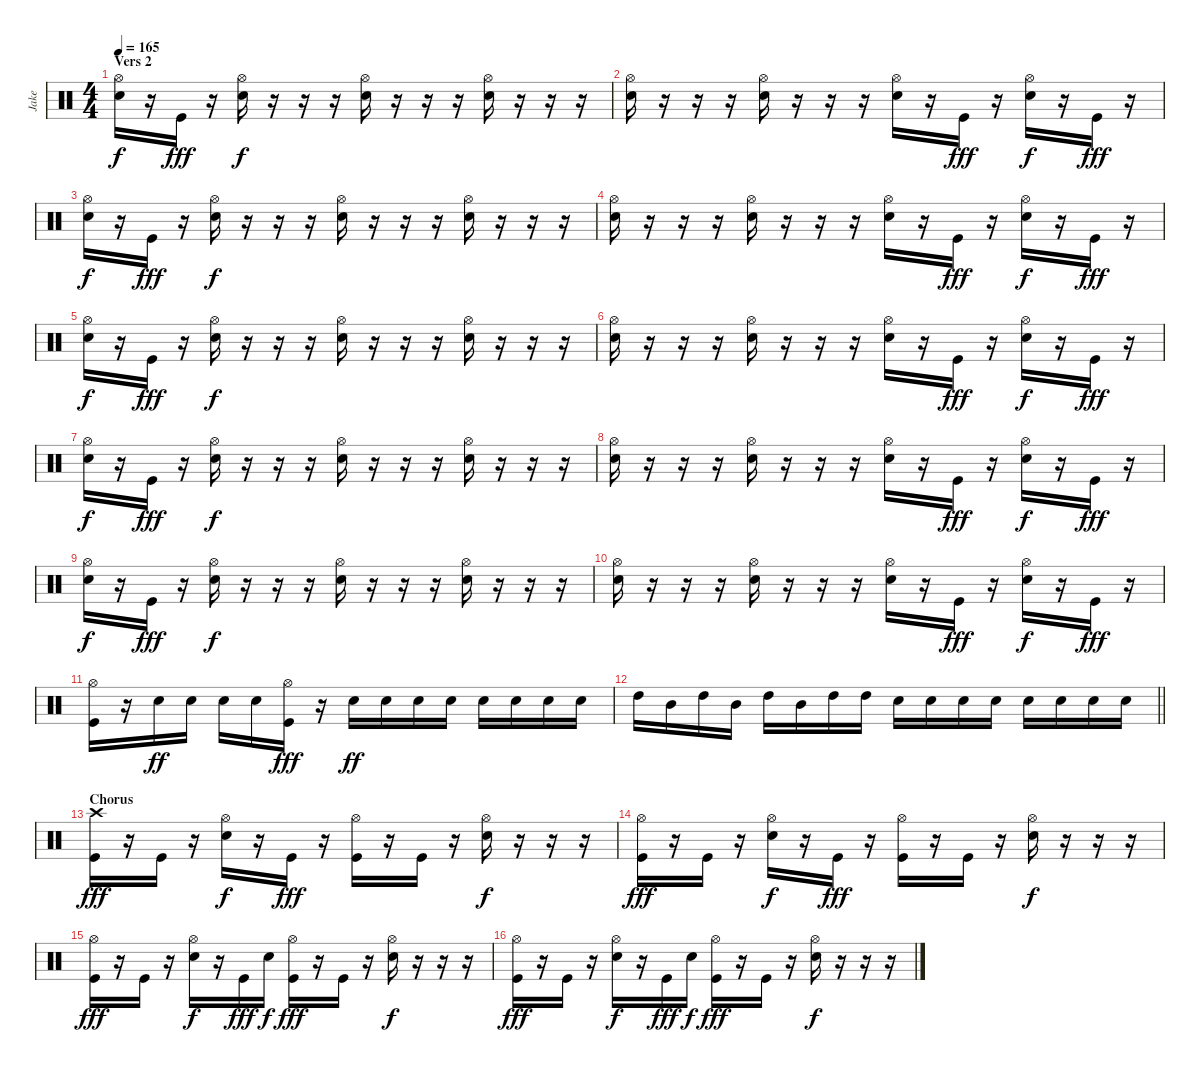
\track ("Jake" "Jake") {instrument percussion}
\staff {score}
\articulation defaults
\ts (4 4)
\section ("" "Vers 2")
\tempo 165
\clef neutral
\ks c
("Hi-Hat (open)" "Electric Snare (hit)").16{dy f} r.16 "Kick (hit)".16{dy fff} r.16 ("Hi-Hat (open)" "Electric Snare (hit)").16{dy f} r.16 r.16 r.16 ("Hi-Hat (open)" "Electric Snare (hit)").16 r.16 r.16 r.16 ("Hi-Hat (open)" "Electric Snare (hit)").16 r.16 r.16 r.16 |
("Hi-Hat (open)" "Electric Snare (hit)").16 r.16 r.16 r.16 ("Hi-Hat (open)" "Electric Snare (hit)").16 r.16 r.16 r.16 ("Hi-Hat (open)" "Electric Snare (hit)").16 r.16 "Kick (hit)".16{dy fff} r.16 ("Hi-Hat (open)" "Electric Snare (hit)").16{dy f} r.16 "Kick (hit)".16{dy fff} r.16 |
("Hi-Hat (open)" "Electric Snare (hit)").16{dy f} r.16 "Kick (hit)".16{dy fff} r.16 ("Hi-Hat (open)" "Electric Snare (hit)").16{dy f} r.16 r.16 r.16 ("Hi-Hat (open)" "Electric Snare (hit)").16 r.16 r.16 r.16 ("Hi-Hat (open)" "Electric Snare (hit)").16 r.16 r.16 r.16 |
("Hi-Hat (open)" "Electric Snare (hit)").16 r.16 r.16 r.16 ("Hi-Hat (open)" "Electric Snare (hit)").16 r.16 r.16 r.16 ("Hi-Hat (open)" "Electric Snare (hit)").16 r.16 "Kick (hit)".16{dy fff} r.16 ("Hi-Hat (open)" "Electric Snare (hit)").16{dy f} r.16 "Kick (hit)".16{dy fff} r.16 |
("Hi-Hat (open)" "Electric Snare (hit)").16{dy f} r.16 "Kick (hit)".16{dy fff} r.16 ("Hi-Hat (open)" "Electric Snare (hit)").16{dy f} r.16 r.16 r.16 ("Hi-Hat (open)" "Electric Snare (hit)").16 r.16 r.16 r.16 ("Hi-Hat (open)" "Electric Snare (hit)").16 r.16 r.16 r.16 |
("Hi-Hat (open)" "Electric Snare (hit)").16 r.16 r.16 r.16 ("Hi-Hat (open)" "Electric Snare (hit)").16 r.16 r.16 r.16 ("Hi-Hat (open)" "Electric Snare (hit)").16 r.16 "Kick (hit)".16{dy fff} r.16 ("Hi-Hat (open)" "Electric Snare (hit)").16{dy f} r.16 "Kick (hit)".16{dy fff} r.16 |
("Hi-Hat (open)" "Electric Snare (hit)").16{dy f} r.16 "Kick (hit)".16{dy fff} r.16 ("Hi-Hat (open)" "Electric Snare (hit)").16{dy f} r.16 r.16 r.16 ("Hi-Hat (open)" "Electric Snare (hit)").16 r.16 r.16 r.16 ("Hi-Hat (open)" "Electric Snare (hit)").16 r.16 r.16 r.16 |
("Hi-Hat (open)" "Electric Snare (hit)").16 r.16 r.16 r.16 ("Hi-Hat (open)" "Electric Snare (hit)").16 r.16 r.16 r.16 ("Hi-Hat (open)" "Electric Snare (hit)").16 r.16 "Kick (hit)".16{dy fff} r.16 ("Hi-Hat (open)" "Electric Snare (hit)").16{dy f} r.16 "Kick (hit)".16{dy fff} r.16 |
("Hi-Hat (open)" "Electric Snare (hit)").16{dy f} r.16 "Kick (hit)".16{dy fff} r.16 ("Hi-Hat (open)" "Electric Snare (hit)").16{dy f} r.16 r.16 r.16 ("Hi-Hat (open)" "Electric Snare (hit)").16 r.16 r.16 r.16 ("Hi-Hat (open)" "Electric Snare (hit)").16 r.16 r.16 r.16 |
("Hi-Hat (open)" "Electric Snare (hit)").16 r.16 r.16 r.16 ("Hi-Hat (open)" "Electric Snare (hit)").16 r.16 r.16 r.16 ("Hi-Hat (open)" "Electric Snare (hit)").16 r.16 "Kick (hit)".16{dy fff} r.16 ("Hi-Hat (open)" "Electric Snare (hit)").16{dy f} r.16 "Kick (hit)".16{dy fff} r.16 |
("Hi-Hat (open)" "Kick (hit)").16 r.16 "Electric Snare (hit)".16{dy ff} "Electric Snare (hit)".16 "Electric Snare (hit)".16 "Electric Snare (hit)".16 ("Hi-Hat (open)" "Kick (hit)").16{dy fff} r.16 "Electric Snare (hit)".16{dy ff} "Electric Snare (hit)".16 "Electric Snare (hit)".16 "Electric Snare (hit)".16 "Electric Snare (hit)".16 "Electric Snare (hit)".16 "Electric Snare (hit)".16 "Electric Snare (hit)".16 |
\barLineRight lightlight "High Tom (hit)".16 "Mid Tom (hit)".16 "High Tom (hit)".16 "Mid Tom (hit)".16 "High Tom (hit)".16 "Mid Tom (hit)".16 "High Tom (hit)".16 "High Tom (hit)".16 "Electric Snare (hit)".16 "Electric Snare (hit)".16 "Electric Snare (hit)".16 "Electric Snare (hit)".16 "Electric Snare (hit)".16 "Electric Snare (hit)".16 "Electric Snare (hit)".16 "Electric Snare (hit)".16
|
\section ("" "Chorus")
("Crash high (hit)" "Kick (hit)").16{dy fff} r.16 "Kick (hit)".16 r.16 ("Hi-Hat (open)" "Electric Snare (hit)").16{dy f} r.16 "Kick (hit)".16{dy fff} r.16 ("Hi-Hat (open)" "Kick (hit)").16 r.16 "Kick (hit)".16 r.16 ("Hi-Hat (open)" "Electric Snare (hit)").16{dy f} r.16 r.16 r.16 |
("Hi-Hat (open)" "Kick (hit)").16{dy fff} r.16 "Kick (hit)".16 r.16 ("Hi-Hat (open)" "Electric Snare (hit)").16{dy f} r.16 "Kick (hit)".16{dy fff} r.16 ("Hi-Hat (open)" "Kick (hit)").16 r.16 "Kick (hit)".16 r.16 ("Hi-Hat (open)" "Electric Snare (hit)").16{dy f} r.16 r.16 r.16 |
("Hi-Hat (open)" "Kick (hit)").16{dy fff} r.16 "Kick (hit)".16 r.16 ("Hi-Hat (open)" "Electric Snare (hit)").16{dy f} r.16 "Kick (hit)".16{dy fff} "Electric Snare (hit)".16{dy f} ("Hi-Hat (open)" "Kick (hit)").16{dy fff} r.16 "Kick (hit)".16 r.16 ("Hi-Hat (open)" "Electric Snare (hit)").16{dy f} r.16 r.16 r.16 |
("Hi-Hat (open)" "Kick (hit)").16{dy fff} r.16 "Kick (hit)".16 r.16 ("Hi-Hat (open)" "Electric Snare (hit)").16{dy f} r.16 "Kick (hit)".16{dy fff} "Electric Snare (hit)".16{dy f} ("Hi-Hat (open)" "Kick (hit)").16{dy fff} r.16 "Kick (hit)".16 r.16 ("Hi-Hat (open)" "Electric Snare (hit)").16{dy f} r.16 r.16 r.16
